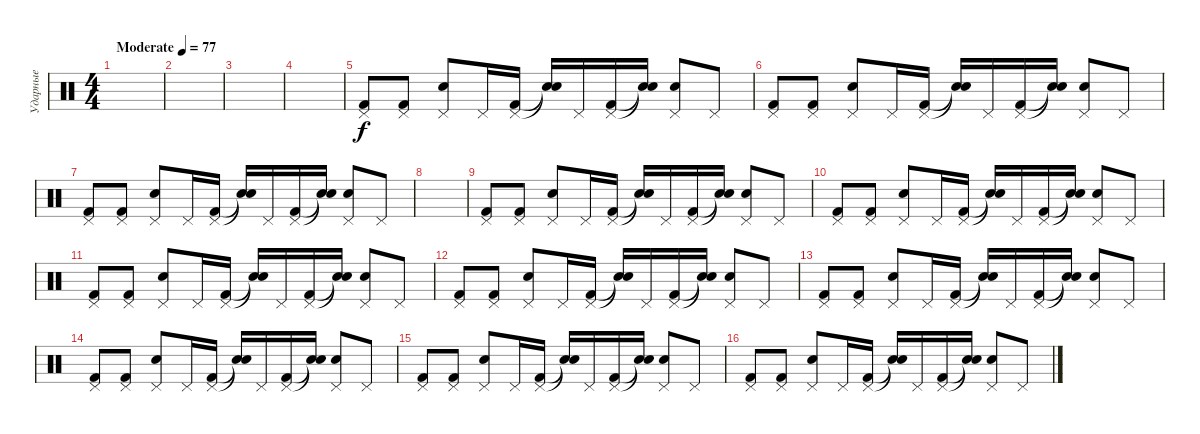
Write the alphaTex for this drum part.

\track ("Ударные" "Ударные") {instrument percussion}
\staff {score}
\articulation defaults
\ts (4 4)
\tempo (77 "Moderate")
\clef neutral
\ks c
|
|
|
|
("Kick (hit) 2" "Pedal Hi-Hat (hit)").8 ("Kick (hit) 2" "Pedal Hi-Hat (hit)").8 ("Electric Snare (hit)" "Pedal Hi-Hat (hit)").8 "Pedal Hi-Hat (hit)".16 ("Kick (hit) 2" "Pedal Hi-Hat (hit)").16 ("Snare (hit)"{t} "Snare (hit)"{t}).16 "Pedal Hi-Hat (hit)".16 ("Kick (hit) 2" "Pedal Hi-Hat (hit)").16 ("Snare (hit)"{t} "Snare (hit)"{t}).16 ("Electric Snare (hit)" "Pedal Hi-Hat (hit)").8 "Pedal Hi-Hat (hit)".8 |
("Kick (hit) 2" "Pedal Hi-Hat (hit)").8 ("Kick (hit) 2" "Pedal Hi-Hat (hit)").8 ("Electric Snare (hit)" "Pedal Hi-Hat (hit)").8 "Pedal Hi-Hat (hit)".16 ("Kick (hit) 2" "Pedal Hi-Hat (hit)").16 ("Snare (hit)"{t} "Snare (hit)"{t}).16 "Pedal Hi-Hat (hit)".16 ("Kick (hit) 2" "Pedal Hi-Hat (hit)").16 ("Snare (hit)"{t} "Snare (hit)"{t}).16 ("Electric Snare (hit)" "Pedal Hi-Hat (hit)").8 "Pedal Hi-Hat (hit)".8 |
("Kick (hit) 2" "Pedal Hi-Hat (hit)").8 ("Kick (hit) 2" "Pedal Hi-Hat (hit)").8 ("Electric Snare (hit)" "Pedal Hi-Hat (hit)").8 "Pedal Hi-Hat (hit)".16 ("Kick (hit) 2" "Pedal Hi-Hat (hit)").16 ("Snare (hit)"{t} "Snare (hit)"{t}).16 "Pedal Hi-Hat (hit)".16 ("Kick (hit) 2" "Pedal Hi-Hat (hit)").16 ("Snare (hit)"{t} "Snare (hit)"{t}).16 ("Electric Snare (hit)" "Pedal Hi-Hat (hit)").8 "Pedal Hi-Hat (hit)".8 |
|
("Kick (hit) 2" "Pedal Hi-Hat (hit)").8 ("Kick (hit) 2" "Pedal Hi-Hat (hit)").8 ("Electric Snare (hit)" "Pedal Hi-Hat (hit)").8 "Pedal Hi-Hat (hit)".16 ("Kick (hit) 2" "Pedal Hi-Hat (hit)").16 ("Snare (hit)"{t} "Snare (hit)"{t}).16 "Pedal Hi-Hat (hit)".16 ("Kick (hit) 2" "Pedal Hi-Hat (hit)").16 ("Snare (hit)"{t} "Snare (hit)"{t}).16 ("Electric Snare (hit)" "Pedal Hi-Hat (hit)").8 "Pedal Hi-Hat (hit)".8 |
("Kick (hit) 2" "Pedal Hi-Hat (hit)").8 ("Kick (hit) 2" "Pedal Hi-Hat (hit)").8 ("Electric Snare (hit)" "Pedal Hi-Hat (hit)").8 "Pedal Hi-Hat (hit)".16 ("Kick (hit) 2" "Pedal Hi-Hat (hit)").16 ("Snare (hit)"{t} "Snare (hit)"{t}).16 "Pedal Hi-Hat (hit)".16 ("Kick (hit) 2" "Pedal Hi-Hat (hit)").16 ("Snare (hit)"{t} "Snare (hit)"{t}).16 ("Electric Snare (hit)" "Pedal Hi-Hat (hit)").8 "Pedal Hi-Hat (hit)".8 |
("Kick (hit) 2" "Pedal Hi-Hat (hit)").8 ("Kick (hit) 2" "Pedal Hi-Hat (hit)").8 ("Electric Snare (hit)" "Pedal Hi-Hat (hit)").8 "Pedal Hi-Hat (hit)".16 ("Kick (hit) 2" "Pedal Hi-Hat (hit)").16 ("Snare (hit)"{t} "Snare (hit)"{t}).16 "Pedal Hi-Hat (hit)".16 ("Kick (hit) 2" "Pedal Hi-Hat (hit)").16 ("Snare (hit)"{t} "Snare (hit)"{t}).16 ("Electric Snare (hit)" "Pedal Hi-Hat (hit)").8 "Pedal Hi-Hat (hit)".8 |
("Kick (hit) 2" "Pedal Hi-Hat (hit)").8 ("Kick (hit) 2" "Pedal Hi-Hat (hit)").8 ("Electric Snare (hit)" "Pedal Hi-Hat (hit)").8 "Pedal Hi-Hat (hit)".16 ("Kick (hit) 2" "Pedal Hi-Hat (hit)").16 ("Snare (hit)"{t} "Snare (hit)"{t}).16 "Pedal Hi-Hat (hit)".16 ("Kick (hit) 2" "Pedal Hi-Hat (hit)").16 ("Snare (hit)"{t} "Snare (hit)"{t}).16 ("Electric Snare (hit)" "Pedal Hi-Hat (hit)").8 "Pedal Hi-Hat (hit)".8 |
("Kick (hit) 2" "Pedal Hi-Hat (hit)").8 ("Kick (hit) 2" "Pedal Hi-Hat (hit)").8 ("Electric Snare (hit)" "Pedal Hi-Hat (hit)").8 "Pedal Hi-Hat (hit)".16 ("Kick (hit) 2" "Pedal Hi-Hat (hit)").16 ("Snare (hit)"{t} "Snare (hit)"{t}).16 "Pedal Hi-Hat (hit)".16 ("Kick (hit) 2" "Pedal Hi-Hat (hit)").16 ("Snare (hit)"{t} "Snare (hit)"{t}).16 ("Electric Snare (hit)" "Pedal Hi-Hat (hit)").8 "Pedal Hi-Hat (hit)".8 |
("Kick (hit) 2" "Pedal Hi-Hat (hit)").8 ("Kick (hit) 2" "Pedal Hi-Hat (hit)").8 ("Electric Snare (hit)" "Pedal Hi-Hat (hit)").8 "Pedal Hi-Hat (hit)".16 ("Kick (hit) 2" "Pedal Hi-Hat (hit)").16 ("Snare (hit)"{t} "Snare (hit)"{t}).16 "Pedal Hi-Hat (hit)".16 ("Kick (hit) 2" "Pedal Hi-Hat (hit)").16 ("Snare (hit)"{t} "Snare (hit)"{t}).16 ("Electric Snare (hit)" "Pedal Hi-Hat (hit)").8 "Pedal Hi-Hat (hit)".8 |
("Kick (hit) 2" "Pedal Hi-Hat (hit)").8 ("Kick (hit) 2" "Pedal Hi-Hat (hit)").8 ("Electric Snare (hit)" "Pedal Hi-Hat (hit)").8 "Pedal Hi-Hat (hit)".16 ("Kick (hit) 2" "Pedal Hi-Hat (hit)").16 ("Snare (hit)"{t} "Snare (hit)"{t}).16 "Pedal Hi-Hat (hit)".16 ("Kick (hit) 2" "Pedal Hi-Hat (hit)").16 ("Snare (hit)"{t} "Snare (hit)"{t}).16 ("Electric Snare (hit)" "Pedal Hi-Hat (hit)").8 "Pedal Hi-Hat (hit)".8 |
("Kick (hit) 2" "Pedal Hi-Hat (hit)").8 ("Kick (hit) 2" "Pedal Hi-Hat (hit)").8 ("Electric Snare (hit)" "Pedal Hi-Hat (hit)").8 "Pedal Hi-Hat (hit)".16 ("Kick (hit) 2" "Pedal Hi-Hat (hit)").16 ("Snare (hit)"{t} "Snare (hit)"{t}).16 "Pedal Hi-Hat (hit)".16 ("Kick (hit) 2" "Pedal Hi-Hat (hit)").16 ("Snare (hit)"{t} "Snare (hit)"{t}).16 ("Electric Snare (hit)" "Pedal Hi-Hat (hit)").8 "Pedal Hi-Hat (hit)".8
